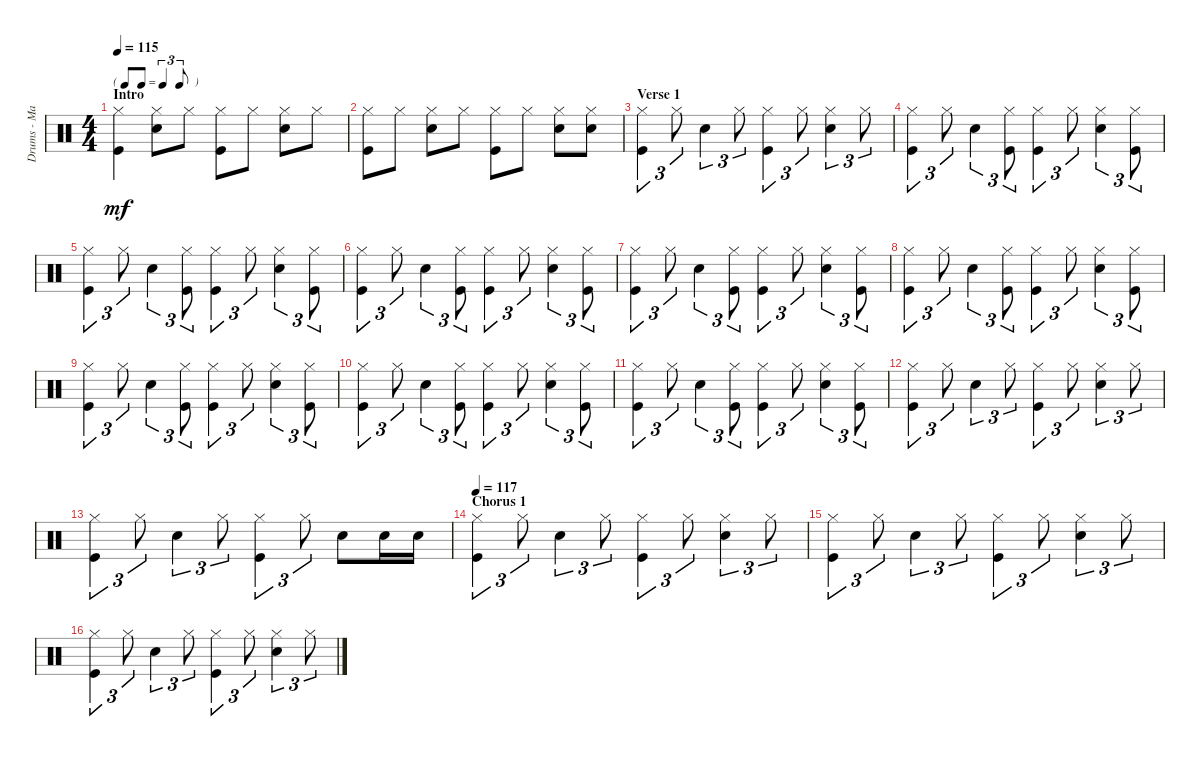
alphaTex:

\track ("Drums - Mason" "Drums - Ma") {instrument percussion}
\staff {score}
\articulation defaults
\ts (4 4)
\tf triplet8th
\section ("" "Intro")
\tempo 115
\clef neutral
\ks c
("Hi-Hat (closed)" "Kick (hit)").4{dy mf} ("Hi-Hat (closed)" "Snare (hit) 2").8 "Hi-Hat (closed)".8 ("Hi-Hat (closed)" "Kick (hit)").8 "Hi-Hat (closed)".8 ("Hi-Hat (closed)" "Snare (hit) 2").8 "Hi-Hat (closed)".8 |
("Hi-Hat (closed)" "Kick (hit)").8 "Hi-Hat (closed)".8 ("Hi-Hat (closed)" "Snare (hit) 2").8 "Hi-Hat (closed)".8 ("Hi-Hat (closed)" "Kick (hit)").8 "Hi-Hat (closed)".8 ("Hi-Hat (closed)" "Snare (hit) 2").8 ("Hi-Hat (closed)" "Snare (hit) 2").8 |
\section ("" "Verse 1")
("Hi-Hat (closed)" "Kick (hit)").4{tu (3 2)} "Hi-Hat (closed)".8{tu (3 2)} "Snare (hit) 2".4{tu (3 2)} "Hi-Hat (closed)".8{tu (3 2)} ("Hi-Hat (closed)" "Kick (hit)").4{tu (3 2)} "Hi-Hat (closed)".8{tu (3 2)} ("Hi-Hat (closed)" "Snare (hit) 2").4{tu (3 2)} "Hi-Hat (closed)".8{tu (3 2)} |
("Hi-Hat (closed)" "Kick (hit)").4{tu (3 2)} "Hi-Hat (closed)".8{tu (3 2)} "Snare (hit) 2".4{tu (3 2)} ("Hi-Hat (closed)" "Kick (hit)").8{tu (3 2)} ("Hi-Hat (closed)" "Kick (hit)").4{tu (3 2)} "Hi-Hat (closed)".8{tu (3 2)} ("Hi-Hat (closed)" "Snare (hit) 2").4{tu (3 2)} ("Hi-Hat (closed)" "Kick (hit)").8{tu (3 2)} |
("Hi-Hat (closed)" "Kick (hit)").4{tu (3 2)} "Hi-Hat (closed)".8{tu (3 2)} "Snare (hit) 2".4{tu (3 2)} ("Hi-Hat (closed)" "Kick (hit)").8{tu (3 2)} ("Hi-Hat (closed)" "Kick (hit)").4{tu (3 2)} "Hi-Hat (closed)".8{tu (3 2)} ("Hi-Hat (closed)" "Snare (hit) 2").4{tu (3 2)} ("Hi-Hat (closed)" "Kick (hit)").8{tu (3 2)} |
("Hi-Hat (closed)" "Kick (hit)").4{tu (3 2)} "Hi-Hat (closed)".8{tu (3 2)} "Snare (hit) 2".4{tu (3 2)} ("Hi-Hat (closed)" "Kick (hit)").8{tu (3 2)} ("Hi-Hat (closed)" "Kick (hit)").4{tu (3 2)} "Hi-Hat (closed)".8{tu (3 2)} ("Hi-Hat (closed)" "Snare (hit) 2").4{tu (3 2)} ("Hi-Hat (closed)" "Kick (hit)").8{tu (3 2)} |
("Hi-Hat (closed)" "Kick (hit)").4{tu (3 2)} "Hi-Hat (closed)".8{tu (3 2)} "Snare (hit) 2".4{tu (3 2)} ("Hi-Hat (closed)" "Kick (hit)").8{tu (3 2)} ("Hi-Hat (closed)" "Kick (hit)").4{tu (3 2)} "Hi-Hat (closed)".8{tu (3 2)} ("Hi-Hat (closed)" "Snare (hit) 2").4{tu (3 2)} ("Hi-Hat (closed)" "Kick (hit)").8{tu (3 2)} |
("Hi-Hat (closed)" "Kick (hit)").4{tu (3 2)} "Hi-Hat (closed)".8{tu (3 2)} "Snare (hit) 2".4{tu (3 2)} ("Hi-Hat (closed)" "Kick (hit)").8{tu (3 2)} ("Hi-Hat (closed)" "Kick (hit)").4{tu (3 2)} "Hi-Hat (closed)".8{tu (3 2)} ("Hi-Hat (closed)" "Snare (hit) 2").4{tu (3 2)} ("Hi-Hat (closed)" "Kick (hit)").8{tu (3 2)} |
("Hi-Hat (closed)" "Kick (hit)").4{tu (3 2)} "Hi-Hat (closed)".8{tu (3 2)} "Snare (hit) 2".4{tu (3 2)} ("Hi-Hat (closed)" "Kick (hit)").8{tu (3 2)} ("Hi-Hat (closed)" "Kick (hit)").4{tu (3 2)} "Hi-Hat (closed)".8{tu (3 2)} ("Hi-Hat (closed)" "Snare (hit) 2").4{tu (3 2)} ("Hi-Hat (closed)" "Kick (hit)").8{tu (3 2)} |
("Hi-Hat (closed)" "Kick (hit)").4{tu (3 2)} "Hi-Hat (closed)".8{tu (3 2)} "Snare (hit) 2".4{tu (3 2)} ("Hi-Hat (closed)" "Kick (hit)").8{tu (3 2)} ("Hi-Hat (closed)" "Kick (hit)").4{tu (3 2)} "Hi-Hat (closed)".8{tu (3 2)} ("Hi-Hat (closed)" "Snare (hit) 2").4{tu (3 2)} ("Hi-Hat (closed)" "Kick (hit)").8{tu (3 2)} |
("Hi-Hat (closed)" "Kick (hit)").4{tu (3 2)} "Hi-Hat (closed)".8{tu (3 2)} "Snare (hit) 2".4{tu (3 2)} ("Hi-Hat (closed)" "Kick (hit)").8{tu (3 2)} ("Hi-Hat (closed)" "Kick (hit)").4{tu (3 2)} "Hi-Hat (closed)".8{tu (3 2)} ("Hi-Hat (closed)" "Snare (hit) 2").4{tu (3 2)} ("Hi-Hat (closed)" "Kick (hit)").8{tu (3 2)} |
("Hi-Hat (closed)" "Kick (hit)").4{tu (3 2)} "Hi-Hat (closed)".8{tu (3 2)} "Snare (hit) 2".4{tu (3 2)} "Hi-Hat (closed)".8{tu (3 2)} ("Hi-Hat (closed)" "Kick (hit)").4{tu (3 2)} "Hi-Hat (closed)".8{tu (3 2)} ("Hi-Hat (closed)" "Snare (hit) 2").4{tu (3 2)} "Hi-Hat (closed)".8{tu (3 2)} |
("Hi-Hat (closed)" "Kick (hit)").4{tu (3 2)} "Hi-Hat (closed)".8{tu (3 2)} "Snare (hit) 2".4{tu (3 2)} "Hi-Hat (closed)".8{tu (3 2)} ("Hi-Hat (closed)" "Kick (hit)").4{tu (3 2)} "Hi-Hat (closed)".8{tu (3 2)} "Snare (hit) 2".8 "Snare (hit) 2".16 "Snare (hit) 2".16 |
\section ("" "Chorus 1")
\tempo 117
("Hi-Hat (closed)" "Kick (hit)").4{tu (3 2)} "Hi-Hat (closed)".8{tu (3 2)} "Snare (hit) 2".4{tu (3 2)} "Hi-Hat (closed)".8{tu (3 2)} ("Hi-Hat (closed)" "Kick (hit)").4{tu (3 2)} "Hi-Hat (closed)".8{tu (3 2)} ("Hi-Hat (closed)" "Snare (hit) 2").4{tu (3 2)} "Hi-Hat (closed)".8{tu (3 2)} |
("Hi-Hat (closed)" "Kick (hit)").4{tu (3 2)} "Hi-Hat (closed)".8{tu (3 2)} "Snare (hit) 2".4{tu (3 2)} "Hi-Hat (closed)".8{tu (3 2)} ("Hi-Hat (closed)" "Kick (hit)").4{tu (3 2)} "Hi-Hat (closed)".8{tu (3 2)} ("Hi-Hat (closed)" "Snare (hit) 2").4{tu (3 2)} "Hi-Hat (closed)".8{tu (3 2)} |
("Hi-Hat (closed)" "Kick (hit)").4{tu (3 2)} "Hi-Hat (closed)".8{tu (3 2)} "Snare (hit) 2".4{tu (3 2)} "Hi-Hat (closed)".8{tu (3 2)} ("Hi-Hat (closed)" "Kick (hit)").4{tu (3 2)} "Hi-Hat (closed)".8{tu (3 2)} ("Hi-Hat (closed)" "Snare (hit) 2").4{tu (3 2)} "Hi-Hat (closed)".8{tu (3 2)}
